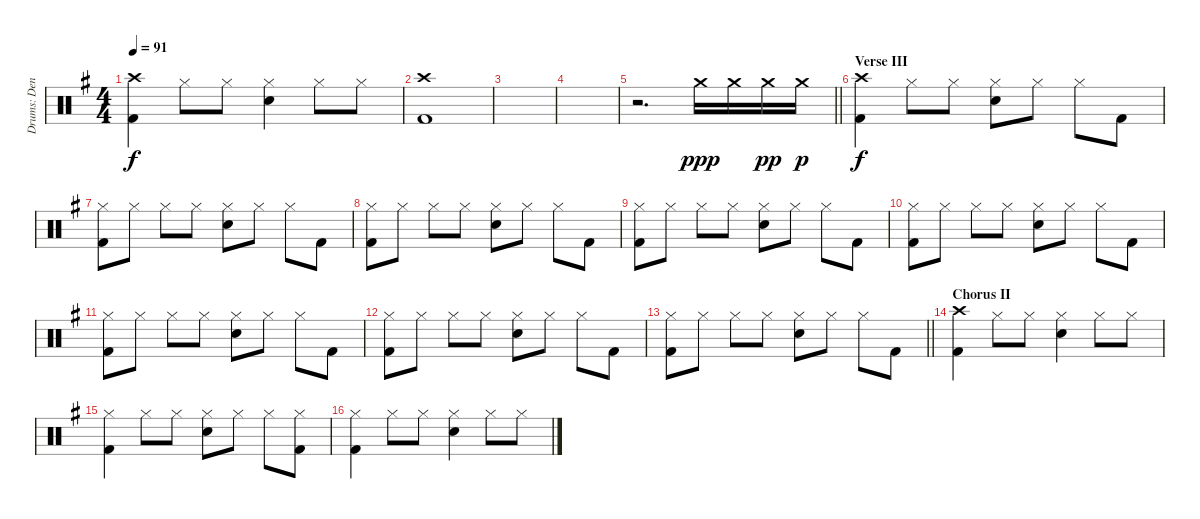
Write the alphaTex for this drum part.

\track ("Drums: Denny" "Drums: Den") {instrument percussion}
\staff {score}
\articulation defaults
\ts (4 4)
\tempo 91
\clef neutral
\ks g
("Crash high (hit)" "Kick (hit) 2").4{dy f} "Hi-Hat (closed)".8 "Hi-Hat (closed)".8 ("Hi-Hat (closed)" "Electric Snare (hit)").4 "Hi-Hat (closed)".8 "Hi-Hat (closed)".8 |
("Crash high (hit)" "Kick (hit) 2").1 |
|
|
\barLineRight lightlight
r.2{d} "Crash medium (hit)".16{dy ppp} "Crash medium (hit)".16 "Crash medium (hit)".16{dy pp} "Crash medium (hit)".16{dy p} |
\section ("" "Verse III")
("Crash high (hit)" "Kick (hit) 2").4{dy f} "Hi-Hat (closed)".8 "Hi-Hat (closed)".8 ("Hi-Hat (closed)" "Electric Snare (hit)").8 "Hi-Hat (closed)".8 "Hi-Hat (closed)".8 "Kick (hit) 2".8 |
("Hi-Hat (closed)" "Kick (hit) 2").8 "Hi-Hat (closed)".8 "Hi-Hat (closed)".8 "Hi-Hat (closed)".8 ("Hi-Hat (closed)" "Electric Snare (hit)").8 "Hi-Hat (closed)".8 "Hi-Hat (closed)".8 "Kick (hit) 2".8 |
("Hi-Hat (closed)" "Kick (hit) 2").8 "Hi-Hat (closed)".8 "Hi-Hat (closed)".8 "Hi-Hat (closed)".8 ("Hi-Hat (closed)" "Electric Snare (hit)").8 "Hi-Hat (closed)".8 "Hi-Hat (closed)".8 "Kick (hit) 2".8 |
("Hi-Hat (closed)" "Kick (hit) 2").8 "Hi-Hat (closed)".8 "Hi-Hat (closed)".8 "Hi-Hat (closed)".8 ("Hi-Hat (closed)" "Electric Snare (hit)").8 "Hi-Hat (closed)".8 "Hi-Hat (closed)".8 "Kick (hit) 2".8 |
("Hi-Hat (closed)" "Kick (hit) 2").8 "Hi-Hat (closed)".8 "Hi-Hat (closed)".8 "Hi-Hat (closed)".8 ("Hi-Hat (closed)" "Electric Snare (hit)").8 "Hi-Hat (closed)".8 "Hi-Hat (closed)".8 "Kick (hit) 2".8 |
("Hi-Hat (closed)" "Kick (hit) 2").8 "Hi-Hat (closed)".8 "Hi-Hat (closed)".8 "Hi-Hat (closed)".8 ("Hi-Hat (closed)" "Electric Snare (hit)").8 "Hi-Hat (closed)".8 "Hi-Hat (closed)".8 "Kick (hit) 2".8 |
("Hi-Hat (closed)" "Kick (hit) 2").8 "Hi-Hat (closed)".8 "Hi-Hat (closed)".8 "Hi-Hat (closed)".8 ("Hi-Hat (closed)" "Electric Snare (hit)").8 "Hi-Hat (closed)".8 "Hi-Hat (closed)".8 "Kick (hit) 2".8 |
\barLineRight lightlight
("Hi-Hat (closed)" "Kick (hit) 2").8 "Hi-Hat (closed)".8 "Hi-Hat (closed)".8 "Hi-Hat (closed)".8 ("Hi-Hat (closed)" "Electric Snare (hit)").8 "Hi-Hat (closed)".8 "Hi-Hat (closed)".8 "Kick (hit) 2".8 |
\section ("" "Chorus II")
("Crash high (hit)" "Kick (hit) 2").4 "Hi-Hat (closed)".8 "Hi-Hat (closed)".8 ("Hi-Hat (closed)" "Electric Snare (hit)").4 "Hi-Hat (closed)".8 "Hi-Hat (closed)".8 |
("Hi-Hat (closed)" "Kick (hit) 2").4 "Hi-Hat (closed)".8 "Hi-Hat (closed)".8 ("Hi-Hat (closed)" "Electric Snare (hit)").8 "Hi-Hat (closed)".8 "Hi-Hat (closed)".8 ("Hi-Hat (closed)" "Kick (hit) 2").8 |
("Hi-Hat (closed)" "Kick (hit) 2").4 "Hi-Hat (closed)".8 "Hi-Hat (closed)".8 ("Hi-Hat (closed)" "Electric Snare (hit)").4 "Hi-Hat (closed)".8 "Hi-Hat (closed)".8
